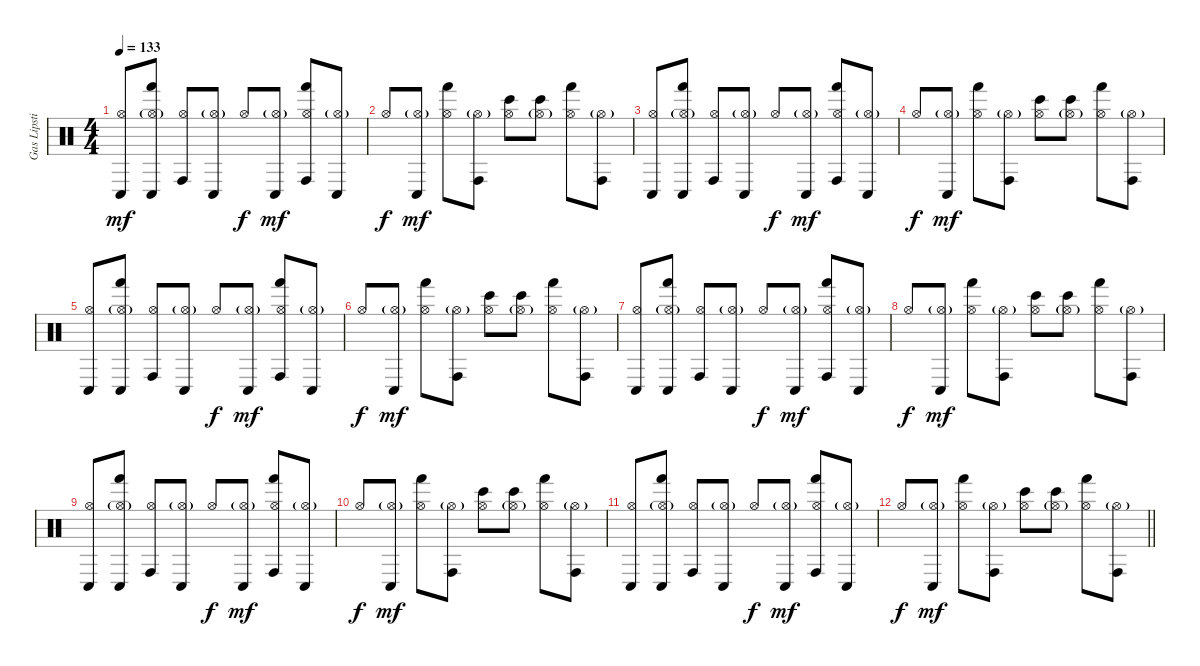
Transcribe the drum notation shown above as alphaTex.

\track ("Gas Lipstick (Drums)" "Gas Lipsti") {instrument percussion}
\staff {score}
\articulation defaults
\ts (4 4)
\tempo 133
\clef neutral
\ks c
("Hi-Hat (open)" "Conga low (hit)").8{dy mf volume 8} ("Hi-Hat (open)"{g} "Hand (hit)" "Conga low (hit)").8 ("Hi-Hat (open)" "Conga high (hit)").8 ("Hi-Hat (open)"{g} "Conga low (hit)").8 "Hi-Hat (open)".8{dy f} ("Hi-Hat (open)"{g} "Conga low (hit)").8{dy mf} ("Hi-Hat (open)" "Hand (hit)" "Conga high (hit)").8 ("Hi-Hat (open)"{g} "Conga low (hit)").8 |
"Hi-Hat (open)".8{dy f} ("Hi-Hat (open)"{g} "Conga low (hit)").8{dy mf} ("Hi-Hat (open)" "Hand (hit)").8 ("Hi-Hat (open)"{g} "Conga high (hit)").8 ("Hi-Hat (open)" "Bongo High (hit)").8 ("Hi-Hat (open)"{g} "Bongo High (hit)").8 ("Hi-Hat (open)" "Hand (hit)").8 ("Hi-Hat (open)"{g} "Conga high (hit)").8 |
("Hi-Hat (open)" "Conga low (hit)").8 ("Hi-Hat (open)"{g} "Hand (hit)" "Conga low (hit)").8 ("Hi-Hat (open)" "Conga high (hit)").8 ("Hi-Hat (open)"{g} "Conga low (hit)").8 "Hi-Hat (open)".8{dy f} ("Hi-Hat (open)"{g} "Conga low (hit)").8{dy mf} ("Hi-Hat (open)" "Hand (hit)" "Conga high (hit)").8 ("Hi-Hat (open)"{g} "Conga low (hit)").8 |
"Hi-Hat (open)".8{dy f} ("Hi-Hat (open)"{g} "Conga low (hit)").8{dy mf} ("Hi-Hat (open)" "Hand (hit)").8 ("Hi-Hat (open)"{g} "Conga high (hit)").8 ("Hi-Hat (open)" "Bongo High (hit)").8 ("Hi-Hat (open)"{g} "Bongo High (hit)").8 ("Hi-Hat (open)" "Hand (hit)").8 ("Hi-Hat (open)"{g} "Conga high (hit)").8 |
("Hi-Hat (open)" "Conga low (hit)").8{volume 5} ("Hi-Hat (open)"{g} "Hand (hit)" "Conga low (hit)").8 ("Hi-Hat (open)" "Conga high (hit)").8 ("Hi-Hat (open)"{g} "Conga low (hit)").8 "Hi-Hat (open)".8{dy f} ("Hi-Hat (open)"{g} "Conga low (hit)").8{dy mf} ("Hi-Hat (open)" "Hand (hit)" "Conga high (hit)").8 ("Hi-Hat (open)"{g} "Conga low (hit)").8 |
"Hi-Hat (open)".8{dy f} ("Hi-Hat (open)"{g} "Conga low (hit)").8{dy mf} ("Hi-Hat (open)" "Hand (hit)").8 ("Hi-Hat (open)"{g} "Conga high (hit)").8 ("Hi-Hat (open)" "Bongo High (hit)").8 ("Hi-Hat (open)"{g} "Bongo High (hit)").8 ("Hi-Hat (open)" "Hand (hit)").8 ("Hi-Hat (open)"{g} "Conga high (hit)").8 |
("Hi-Hat (open)" "Conga low (hit)").8 ("Hi-Hat (open)"{g} "Hand (hit)" "Conga low (hit)").8 ("Hi-Hat (open)" "Conga high (hit)").8 ("Hi-Hat (open)"{g} "Conga low (hit)").8 "Hi-Hat (open)".8{dy f} ("Hi-Hat (open)"{g} "Conga low (hit)").8{dy mf} ("Hi-Hat (open)" "Hand (hit)" "Conga high (hit)").8 ("Hi-Hat (open)"{g} "Conga low (hit)").8 |
"Hi-Hat (open)".8{dy f} ("Hi-Hat (open)"{g} "Conga low (hit)").8{dy mf} ("Hi-Hat (open)" "Hand (hit)").8 ("Hi-Hat (open)"{g} "Conga high (hit)").8 ("Hi-Hat (open)" "Bongo High (hit)").8 ("Hi-Hat (open)"{g} "Bongo High (hit)").8 ("Hi-Hat (open)" "Hand (hit)").8 ("Hi-Hat (open)"{g} "Conga high (hit)").8 |
("Hi-Hat (open)" "Conga low (hit)").8{volume 0} ("Hi-Hat (open)"{g} "Hand (hit)" "Conga low (hit)").8 ("Hi-Hat (open)" "Conga high (hit)").8 ("Hi-Hat (open)"{g} "Conga low (hit)").8 "Hi-Hat (open)".8{dy f} ("Hi-Hat (open)"{g} "Conga low (hit)").8{dy mf} ("Hi-Hat (open)" "Hand (hit)" "Conga high (hit)").8 ("Hi-Hat (open)"{g} "Conga low (hit)").8 |
"Hi-Hat (open)".8{dy f} ("Hi-Hat (open)"{g} "Conga low (hit)").8{dy mf} ("Hi-Hat (open)" "Hand (hit)").8 ("Hi-Hat (open)"{g} "Conga high (hit)").8 ("Hi-Hat (open)" "Bongo High (hit)").8 ("Hi-Hat (open)"{g} "Bongo High (hit)").8 ("Hi-Hat (open)" "Hand (hit)").8 ("Hi-Hat (open)"{g} "Conga high (hit)").8 |
("Hi-Hat (open)" "Conga low (hit)").8 ("Hi-Hat (open)"{g} "Hand (hit)" "Conga low (hit)").8 ("Hi-Hat (open)" "Conga high (hit)").8 ("Hi-Hat (open)"{g} "Conga low (hit)").8 "Hi-Hat (open)".8{dy f} ("Hi-Hat (open)"{g} "Conga low (hit)").8{dy mf} ("Hi-Hat (open)" "Hand (hit)" "Conga high (hit)").8 ("Hi-Hat (open)"{g} "Conga low (hit)").8 |
\barLineRight lightlight "Hi-Hat (open)".8{dy f}
("Hi-Hat (open)"{g} "Conga low (hit)").8{dy mf} ("Hi-Hat (open)" "Hand (hit)").8 ("Hi-Hat (open)"{g} "Conga high (hit)").8 ("Hi-Hat (open)" "Bongo High (hit)").8 ("Hi-Hat (open)"{g} "Bongo High (hit)").8 ("Hi-Hat (open)" "Hand (hit)").8 ("Hi-Hat (open)"{g} "Conga high (hit)").8
